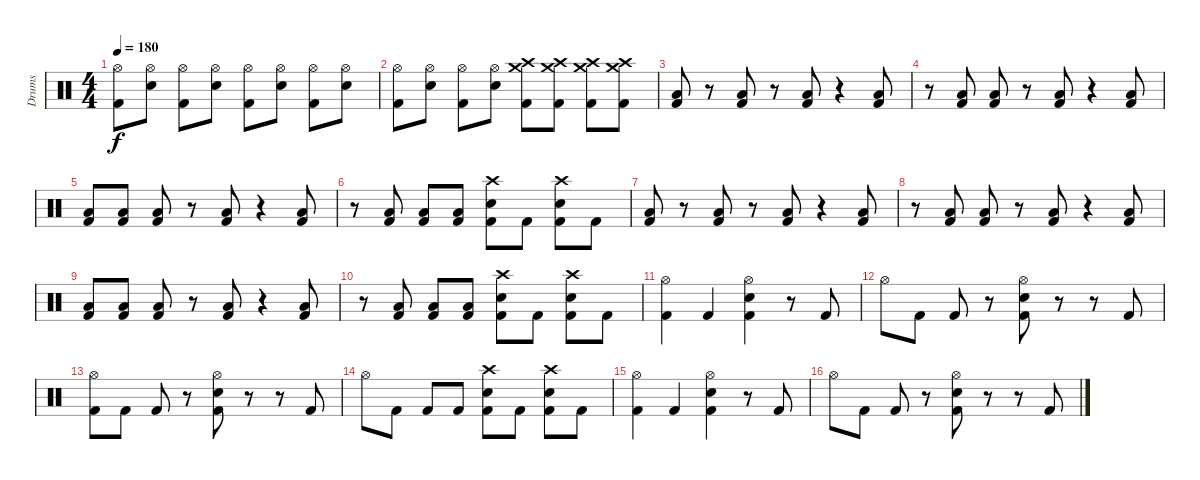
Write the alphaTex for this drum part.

\track ("Drums" "Drums") {instrument percussion}
\staff {score}
\articulation defaults
\ts (4 4)
\tempo 180
\clef neutral
\ks c
("Hi-Hat (open)" "Kick (hit) 2").8{dy f} ("Hi-Hat (open)" "Snare (hit) 2").8 ("Hi-Hat (open)" "Kick (hit) 2").8 ("Hi-Hat (open)" "Snare (hit) 2").8 ("Hi-Hat (open)" "Kick (hit) 2").8 ("Hi-Hat (open)" "Snare (hit) 2").8 ("Hi-Hat (open)" "Kick (hit) 2").8 ("Hi-Hat (open)" "Snare (hit) 2").8 |
("Hi-Hat (open)" "Kick (hit) 2").8 ("Hi-Hat (open)" "Snare (hit) 2").8 ("Hi-Hat (open)" "Kick (hit) 2").8 ("Hi-Hat (open)" "Snare (hit) 2").8 ("Crash high (hit)" "Crash medium (hit)" "Kick (hit) 2").8 ("Crash high (hit)" "Crash medium (hit)" "Kick (hit) 2").8 ("Crash high (hit)" "Crash medium (hit)" "Kick (hit) 2").8 ("Crash high (hit)" "Crash medium (hit)" "Kick (hit) 2").8 |
("Low Tom (hit)" "Kick (hit) 2").8 r.8 ("Low Tom (hit)" "Kick (hit) 2").8 r.8 ("Low Tom (hit)" "Kick (hit) 2").8 r.4 ("Low Tom (hit)" "Kick (hit) 2").8 |
r.8 ("Low Tom (hit)" "Kick (hit) 2").8 ("Low Tom (hit)" "Kick (hit) 2").8 r.8 ("Low Tom (hit)" "Kick (hit) 2").8 r.4 ("Low Tom (hit)" "Kick (hit) 2").8 |
("Low Tom (hit)" "Kick (hit) 2").8 ("Low Tom (hit)" "Kick (hit) 2").8 ("Low Tom (hit)" "Kick (hit) 2").8 r.8 ("Low Tom (hit)" "Kick (hit) 2").8 r.4 ("Low Tom (hit)" "Kick (hit) 2").8 |
r.8 ("Low Tom (hit)" "Kick (hit) 2").8 ("Low Tom (hit)" "Kick (hit) 2").8 ("Low Tom (hit)" "Kick (hit) 2").8 ("Crash high (hit)" "Snare (hit) 2" "Kick (hit) 2").8 "Kick (hit) 2".8 ("Crash high (hit)" "Snare (hit) 2" "Kick (hit) 2").8 "Kick (hit) 2".8 |
("Low Tom (hit)" "Kick (hit) 2").8 r.8 ("Low Tom (hit)" "Kick (hit) 2").8 r.8 ("Low Tom (hit)" "Kick (hit) 2").8 r.4 ("Low Tom (hit)" "Kick (hit) 2").8 |
r.8 ("Low Tom (hit)" "Kick (hit) 2").8 ("Low Tom (hit)" "Kick (hit) 2").8 r.8 ("Low Tom (hit)" "Kick (hit) 2").8 r.4 ("Low Tom (hit)" "Kick (hit) 2").8 |
("Low Tom (hit)" "Kick (hit) 2").8 ("Low Tom (hit)" "Kick (hit) 2").8 ("Low Tom (hit)" "Kick (hit) 2").8 r.8 ("Low Tom (hit)" "Kick (hit) 2").8 r.4 ("Low Tom (hit)" "Kick (hit) 2").8 |
r.8 ("Low Tom (hit)" "Kick (hit) 2").8 ("Low Tom (hit)" "Kick (hit) 2").8 ("Low Tom (hit)" "Kick (hit) 2").8 ("Crash high (hit)" "Snare (hit) 2" "Kick (hit) 2").8 "Kick (hit) 2".8 ("Crash high (hit)" "Snare (hit) 2" "Kick (hit) 2").8 "Kick (hit) 2".8 |
("Hi-Hat (open)" "Kick (hit) 2").4 "Kick (hit) 2".4 ("Hi-Hat (open)" "Snare (hit) 2" "Kick (hit) 2").4 r.8 "Kick (hit) 2".8 |
"Hi-Hat (open)".8 "Kick (hit) 2".8 "Kick (hit) 2".8 r.8 ("Hi-Hat (open)" "Snare (hit) 2" "Kick (hit) 2").8 r.8 r.8 "Kick (hit) 2".8 |
("Hi-Hat (open)" "Kick (hit) 2").8 "Kick (hit) 2".8 "Kick (hit) 2".8 r.8 ("Hi-Hat (open)" "Snare (hit) 2" "Kick (hit) 2").8 r.8 r.8 "Kick (hit) 2".8 |
"Hi-Hat (open)".8 "Kick (hit) 2".8 "Kick (hit) 2".8 "Kick (hit) 2".8 ("Crash high (hit)" "Snare (hit) 2" "Kick (hit) 2").8 "Kick (hit) 2".8 ("Crash high (hit)" "Snare (hit) 2" "Kick (hit) 2").8 "Kick (hit) 2".8 |
("Hi-Hat (open)" "Kick (hit) 2").4 "Kick (hit) 2".4 ("Hi-Hat (open)" "Snare (hit) 2" "Kick (hit) 2").4 r.8 "Kick (hit) 2".8 |
"Hi-Hat (open)".8 "Kick (hit) 2".8 "Kick (hit) 2".8 r.8 ("Hi-Hat (open)" "Snare (hit) 2" "Kick (hit) 2").8 r.8 r.8 "Kick (hit) 2".8
